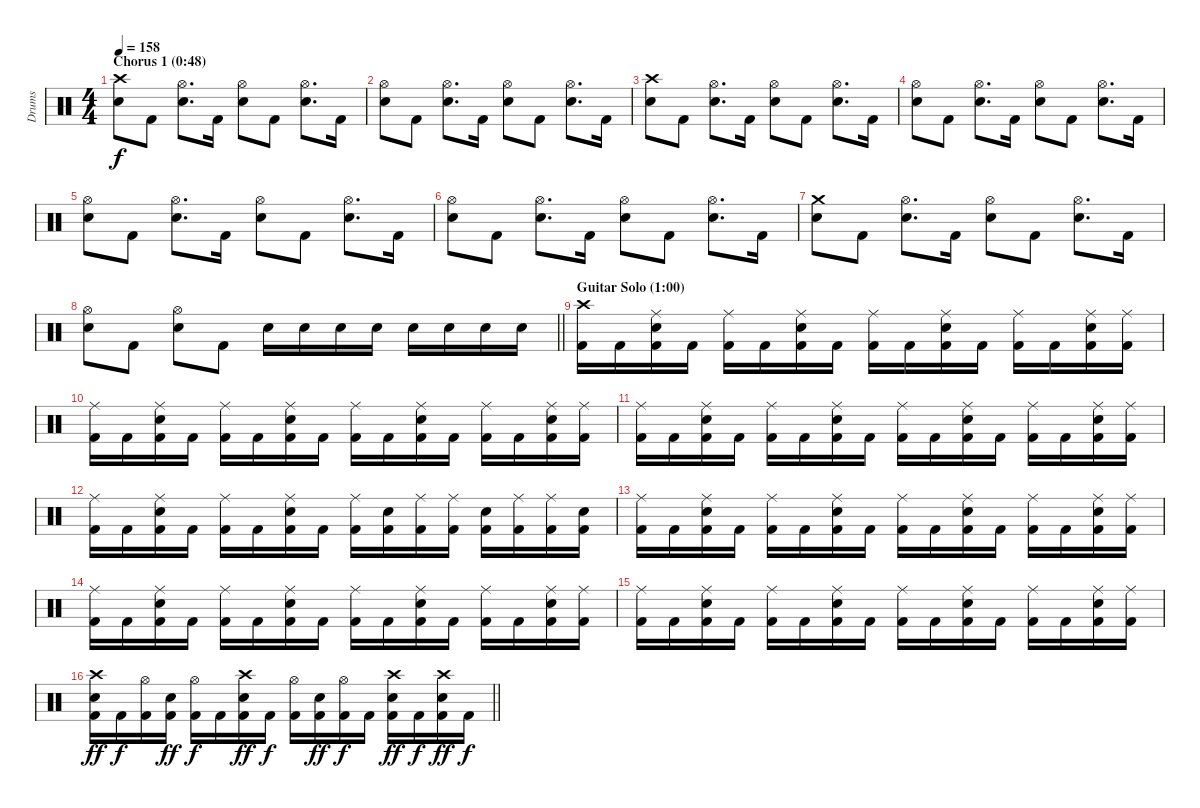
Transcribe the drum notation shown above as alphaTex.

\track ("Drums" "Drums") {instrument percussion}
\staff {score}
\articulation defaults
\ts (4 4)
\section ("" "Chorus 1 (0:48)")
\tempo 158
\clef neutral
\ks c
("Crash high (hit)" "Electric Snare (hit)").8{dy f} "Kick (hit) 2".8 ("Hi-Hat (open)" "Electric Snare (hit)").8{d} "Kick (hit) 2".16 ("Hi-Hat (open)" "Electric Snare (hit)").8 "Kick (hit) 2".8 ("Hi-Hat (open)" "Electric Snare (hit)").8{d} "Kick (hit) 2".16 |
("Hi-Hat (open)" "Electric Snare (hit)").8 "Kick (hit) 2".8 ("Hi-Hat (open)" "Electric Snare (hit)").8{d} "Kick (hit) 2".16 ("Hi-Hat (open)" "Electric Snare (hit)").8 "Kick (hit) 2".8 ("Hi-Hat (open)" "Electric Snare (hit)").8{d} "Kick (hit) 2".16 |
("Crash high (hit)" "Electric Snare (hit)").8 "Kick (hit) 2".8 ("Hi-Hat (open)" "Electric Snare (hit)").8{d} "Kick (hit) 2".16 ("Hi-Hat (open)" "Electric Snare (hit)").8 "Kick (hit) 2".8 ("Hi-Hat (open)" "Electric Snare (hit)").8{d} "Kick (hit) 2".16 |
("Hi-Hat (open)" "Electric Snare (hit)").8 "Kick (hit) 2".8 ("Hi-Hat (open)" "Electric Snare (hit)").8{d} "Kick (hit) 2".16 ("Hi-Hat (open)" "Electric Snare (hit)").8 "Kick (hit) 2".8 ("Hi-Hat (open)" "Electric Snare (hit)").8{d} "Kick (hit) 2".16 |
("Hi-Hat (open)" "Electric Snare (hit)").8 "Kick (hit) 2".8 ("Hi-Hat (open)" "Electric Snare (hit)").8{d} "Kick (hit) 2".16 ("Hi-Hat (open)" "Electric Snare (hit)").8 "Kick (hit) 2".8 ("Hi-Hat (open)" "Electric Snare (hit)").8{d} "Kick (hit) 2".16 |
("Hi-Hat (open)" "Electric Snare (hit)").8 "Kick (hit) 2".8 ("Hi-Hat (open)" "Electric Snare (hit)").8{d} "Kick (hit) 2".16 ("Hi-Hat (open)" "Electric Snare (hit)").8 "Kick (hit) 2".8 ("Hi-Hat (open)" "Electric Snare (hit)").8{d} "Kick (hit) 2".16 |
("Crash medium (hit)" "Electric Snare (hit)").8 "Kick (hit) 2".8 ("Hi-Hat (open)" "Electric Snare (hit)").8{d} "Kick (hit) 2".16 ("Hi-Hat (open)" "Electric Snare (hit)").8 "Kick (hit) 2".8 ("Hi-Hat (open)" "Electric Snare (hit)").8{d} "Kick (hit) 2".16 |
\barLineRight lightlight
("Hi-Hat (open)" "Electric Snare (hit)").8 "Kick (hit) 2".8 ("Hi-Hat (open)" "Electric Snare (hit)").8 "Kick (hit) 2".8 "Electric Snare (hit)".16 "Electric Snare (hit)".16 "Electric Snare (hit)".16 "Electric Snare (hit)".16 "Electric Snare (hit)".16 "Electric Snare (hit)".16 "Electric Snare (hit)".16 "Electric Snare (hit)".16 |
\section ("" "Guitar Solo (1:00)")
("Crash high (hit)" "Kick (hit) 2").16 "Kick (hit) 2".16 ("Ride (middle)" "Electric Snare (hit)" "Kick (hit) 2").16 "Kick (hit) 2".16 ("Ride (middle)" "Kick (hit) 2").16 "Kick (hit) 2".16 ("Ride (middle)" "Electric Snare (hit)" "Kick (hit) 2").16 "Kick (hit) 2".16 ("Ride (middle)" "Kick (hit) 2").16 "Kick (hit) 2".16 ("Ride (middle)" "Electric Snare (hit)" "Kick (hit) 2").16 "Kick (hit) 2".16 ("Ride (middle)" "Kick (hit) 2").16 "Kick (hit) 2".16 ("Ride (middle)" "Electric Snare (hit)" "Kick (hit) 2").16 ("Ride (middle)" "Kick (hit) 2").16 |
("Ride (middle)" "Kick (hit) 2").16 "Kick (hit) 2".16 ("Ride (middle)" "Electric Snare (hit)" "Kick (hit) 2").16 "Kick (hit) 2".16 ("Ride (middle)" "Kick (hit) 2").16 "Kick (hit) 2".16 ("Ride (middle)" "Electric Snare (hit)" "Kick (hit) 2").16 "Kick (hit) 2".16 ("Ride (middle)" "Kick (hit) 2").16 "Kick (hit) 2".16 ("Ride (middle)" "Electric Snare (hit)" "Kick (hit) 2").16 "Kick (hit) 2".16 ("Ride (middle)" "Kick (hit) 2").16 "Kick (hit) 2".16 ("Ride (middle)" "Electric Snare (hit)" "Kick (hit) 2").16 ("Ride (middle)" "Kick (hit) 2").16 |
("Ride (middle)" "Kick (hit) 2").16 "Kick (hit) 2".16 ("Ride (middle)" "Electric Snare (hit)" "Kick (hit) 2").16 "Kick (hit) 2".16 ("Ride (middle)" "Kick (hit) 2").16 "Kick (hit) 2".16 ("Ride (middle)" "Electric Snare (hit)" "Kick (hit) 2").16 "Kick (hit) 2".16 ("Ride (middle)" "Kick (hit) 2").16 "Kick (hit) 2".16 ("Ride (middle)" "Electric Snare (hit)" "Kick (hit) 2").16 "Kick (hit) 2".16 ("Ride (middle)" "Kick (hit) 2").16 "Kick (hit) 2".16 ("Ride (middle)" "Electric Snare (hit)" "Kick (hit) 2").16 ("Ride (middle)" "Kick (hit) 2").16 |
("Ride (middle)" "Kick (hit) 2").16 "Kick (hit) 2".16 ("Ride (middle)" "Electric Snare (hit)" "Kick (hit) 2").16 "Kick (hit) 2".16 ("Ride (middle)" "Kick (hit) 2").16 "Kick (hit) 2".16 ("Ride (middle)" "Electric Snare (hit)" "Kick (hit) 2").16 "Kick (hit) 2".16 ("Ride (middle)" "Kick (hit) 2").16 ("Electric Snare (hit)" "Kick (hit) 2").16 ("Ride (middle)" "Kick (hit) 2").16 ("Ride (middle)" "Kick (hit) 2").16 ("Electric Snare (hit)" "Kick (hit) 2").16 ("Ride (middle)" "Kick (hit) 2").16 ("Ride (middle)" "Kick (hit) 2").16 ("Electric Snare (hit)" "Kick (hit) 2").16 |
("Ride (middle)" "Kick (hit) 2").16 "Kick (hit) 2".16 ("Ride (middle)" "Electric Snare (hit)" "Kick (hit) 2").16 "Kick (hit) 2".16 ("Ride (middle)" "Kick (hit) 2").16 "Kick (hit) 2".16 ("Ride (middle)" "Electric Snare (hit)" "Kick (hit) 2").16 "Kick (hit) 2".16 ("Ride (middle)" "Kick (hit) 2").16 "Kick (hit) 2".16 ("Ride (middle)" "Electric Snare (hit)" "Kick (hit) 2").16 "Kick (hit) 2".16 ("Ride (middle)" "Kick (hit) 2").16 "Kick (hit) 2".16 ("Ride (middle)" "Electric Snare (hit)" "Kick (hit) 2").16 ("Ride (middle)" "Kick (hit) 2").16 |
("Ride (middle)" "Kick (hit) 2").16 "Kick (hit) 2".16 ("Ride (middle)" "Electric Snare (hit)" "Kick (hit) 2").16 "Kick (hit) 2".16 ("Ride (middle)" "Kick (hit) 2").16 "Kick (hit) 2".16 ("Ride (middle)" "Electric Snare (hit)" "Kick (hit) 2").16 "Kick (hit) 2".16 ("Ride (middle)" "Kick (hit) 2").16 "Kick (hit) 2".16 ("Ride (middle)" "Electric Snare (hit)" "Kick (hit) 2").16 "Kick (hit) 2".16 ("Ride (middle)" "Kick (hit) 2").16 "Kick (hit) 2".16 ("Ride (middle)" "Electric Snare (hit)" "Kick (hit) 2").16 ("Ride (middle)" "Kick (hit) 2").16 |
("Ride (middle)" "Kick (hit) 2").16 "Kick (hit) 2".16 ("Ride (middle)" "Electric Snare (hit)" "Kick (hit) 2").16 "Kick (hit) 2".16 ("Ride (middle)" "Kick (hit) 2").16 "Kick (hit) 2".16 ("Ride (middle)" "Electric Snare (hit)" "Kick (hit) 2").16 "Kick (hit) 2".16 ("Ride (middle)" "Kick (hit) 2").16 "Kick (hit) 2".16 ("Ride (middle)" "Electric Snare (hit)" "Kick (hit) 2").16 "Kick (hit) 2".16 ("Ride (middle)" "Kick (hit) 2").16 "Kick (hit) 2".16 ("Ride (middle)" "Electric Snare (hit)" "Kick (hit) 2").16 ("Ride (middle)" "Kick (hit) 2").16 |
\barLineRight lightlight
("Crash high (hit)" "Electric Snare (hit)" "Kick (hit) 2").16{dy ff} "Kick (hit) 2".16{dy f} ("Hi-Hat (open)" "Kick (hit) 2").16 ("Electric Snare (hit)" "Kick (hit) 2").16{dy ff} ("Hi-Hat (open)" "Kick (hit) 2").16{dy f} "Kick (hit) 2".16 ("Crash high (hit)" "Electric Snare (hit)" "Kick (hit) 2").16{dy ff} "Kick (hit) 2".16{dy f} ("Hi-Hat (open)" "Kick (hit) 2").16 ("Electric Snare (hit)" "Kick (hit) 2").16{dy ff} ("Hi-Hat (open)" "Kick (hit) 2").16{dy f} "Kick (hit) 2".16 ("Crash high (hit)" "Electric Snare (hit)" "Kick (hit) 2").16{dy ff} "Kick (hit) 2".16{dy f} ("Crash high (hit)" "Electric Snare (hit)" "Kick (hit) 2").16{dy ff} "Kick (hit) 2".16{dy f}
